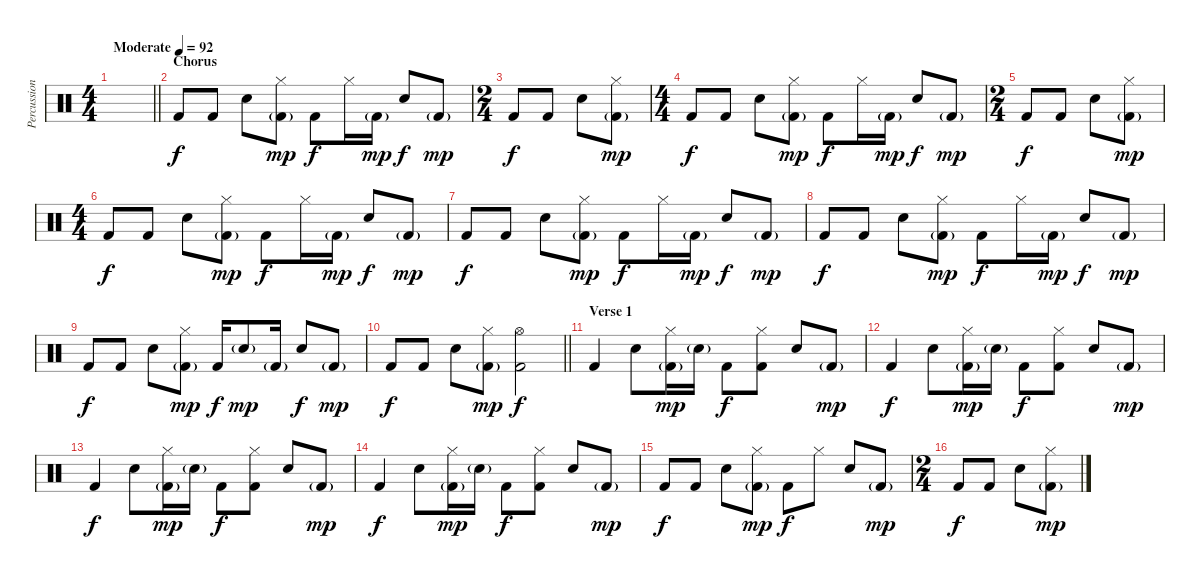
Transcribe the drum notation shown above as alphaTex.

\track ("Percussion" "Percussion") {instrument percussion}
\staff {score}
\articulation defaults
\ts (4 4)
\tempo (92 "Moderate")
\clef neutral
\barLineRight lightlight
\ks c
|
\section ("" "Chorus")
"Kick (hit) 2".8 "Kick (hit) 2".8 "Snare (hit) 2".8 ("Hi-Hat (closed)" "Kick (hit) 2"{g}).8{dy mp} "Kick (hit) 2".8{dy f} "Hi-Hat (closed)".16 "Kick (hit) 2"{g}.16{dy mp} "Snare (hit) 2".8{dy f} "Kick (hit) 2"{g}.8{dy mp} |
\ts (2 4)
"Kick (hit) 2".8{dy f} "Kick (hit) 2".8 "Snare (hit) 2".8 ("Hi-Hat (closed)" "Kick (hit) 2"{g}).8{dy mp} |
\ts (4 4)
"Kick (hit) 2".8{dy f} "Kick (hit) 2".8 "Snare (hit) 2".8 ("Hi-Hat (closed)" "Kick (hit) 2"{g}).8{dy mp} "Kick (hit) 2".8{dy f} "Hi-Hat (closed)".16 "Kick (hit) 2"{g}.16{dy mp} "Snare (hit) 2".8{dy f} "Kick (hit) 2"{g}.8{dy mp} |
\ts (2 4)
"Kick (hit) 2".8{dy f} "Kick (hit) 2".8 "Snare (hit) 2".8 ("Hi-Hat (closed)" "Kick (hit) 2"{g}).8{dy mp} |
\ts (4 4)
"Kick (hit) 2".8{dy f} "Kick (hit) 2".8 "Snare (hit) 2".8 ("Hi-Hat (closed)" "Kick (hit) 2"{g}).8{dy mp} "Kick (hit) 2".8{dy f} "Hi-Hat (closed)".16 "Kick (hit) 2"{g}.16{dy mp} "Snare (hit) 2".8{dy f} "Kick (hit) 2"{g}.8{dy mp} |
"Kick (hit) 2".8{dy f} "Kick (hit) 2".8 "Snare (hit) 2".8 ("Hi-Hat (closed)" "Kick (hit) 2"{g}).8{dy mp} "Kick (hit) 2".8{dy f} "Hi-Hat (closed)".16 "Kick (hit) 2"{g}.16{dy mp} "Snare (hit) 2".8{dy f} "Kick (hit) 2"{g}.8{dy mp} |
"Kick (hit) 2".8{dy f} "Kick (hit) 2".8 "Snare (hit) 2".8 ("Hi-Hat (closed)" "Kick (hit) 2"{g}).8{dy mp} "Kick (hit) 2".8{dy f} "Hi-Hat (closed)".16 "Kick (hit) 2"{g}.16{dy mp} "Snare (hit) 2".8{dy f} "Kick (hit) 2"{g}.8{dy mp} |
"Kick (hit) 2".8{dy f} "Kick (hit) 2".8 "Snare (hit) 2".8 ("Hi-Hat (closed)" "Kick (hit) 2"{g}).8{dy mp} "Kick (hit) 2".16{dy f} "Snare (hit) 2"{g}.8{dy mp} "Kick (hit) 2"{g}.16 "Snare (hit) 2".8{dy f} "Kick (hit) 2"{g}.8{dy mp} |
\barLineRight lightlight "Kick (hit) 2".8{dy f} "Kick (hit) 2".8 "Snare (hit) 2".8
("Hi-Hat (closed)" "Kick (hit) 2"{g}).8{dy mp} ("Hi-Hat (open)" "Kick (hit) 2").2{dy f} |
\section ("" "Verse 1")
"Kick (hit) 2".4 "Snare (hit) 2".8 ("Hi-Hat (closed)" "Kick (hit) 2"{g}).16{dy mp} "Snare (hit) 2"{g}.16 "Kick (hit) 2".8{dy f} ("Hi-Hat (closed)" "Kick (hit) 2").8 "Snare (hit) 2".8 "Kick (hit) 2"{g}.8{dy mp} |
"Kick (hit) 2".4{dy f} "Snare (hit) 2".8 ("Hi-Hat (closed)" "Kick (hit) 2"{g}).16{dy mp} "Snare (hit) 2"{g}.16 "Kick (hit) 2".8{dy f} ("Hi-Hat (closed)" "Kick (hit) 2").8 "Snare (hit) 2".8 "Kick (hit) 2"{g}.8{dy mp} |
"Kick (hit) 2".4{dy f} "Snare (hit) 2".8 ("Hi-Hat (closed)" "Kick (hit) 2"{g}).16{dy mp} "Snare (hit) 2"{g}.16 "Kick (hit) 2".8{dy f} ("Hi-Hat (closed)" "Kick (hit) 2").8 "Snare (hit) 2".8 "Kick (hit) 2"{g}.8{dy mp} |
"Kick (hit) 2".4{dy f} "Snare (hit) 2".8 ("Hi-Hat (closed)" "Kick (hit) 2"{g}).16{dy mp} "Snare (hit) 2"{g}.16 "Kick (hit) 2".8{dy f} ("Hi-Hat (closed)" "Kick (hit) 2").8 "Snare (hit) 2".8 "Kick (hit) 2"{g}.8{dy mp} |
"Kick (hit) 2".8{dy f} "Kick (hit) 2".8 "Snare (hit) 2".8 ("Hi-Hat (closed)" "Kick (hit) 2"{g}).8{dy mp} "Kick (hit) 2".8{dy f} "Hi-Hat (closed)".8 "Snare (hit) 2".8 "Kick (hit) 2"{g}.8{dy mp} |
\ts (2 4)
"Kick (hit) 2".8{dy f} "Kick (hit) 2".8 "Snare (hit) 2".8 ("Hi-Hat (closed)" "Kick (hit) 2"{g}).8{dy mp}
